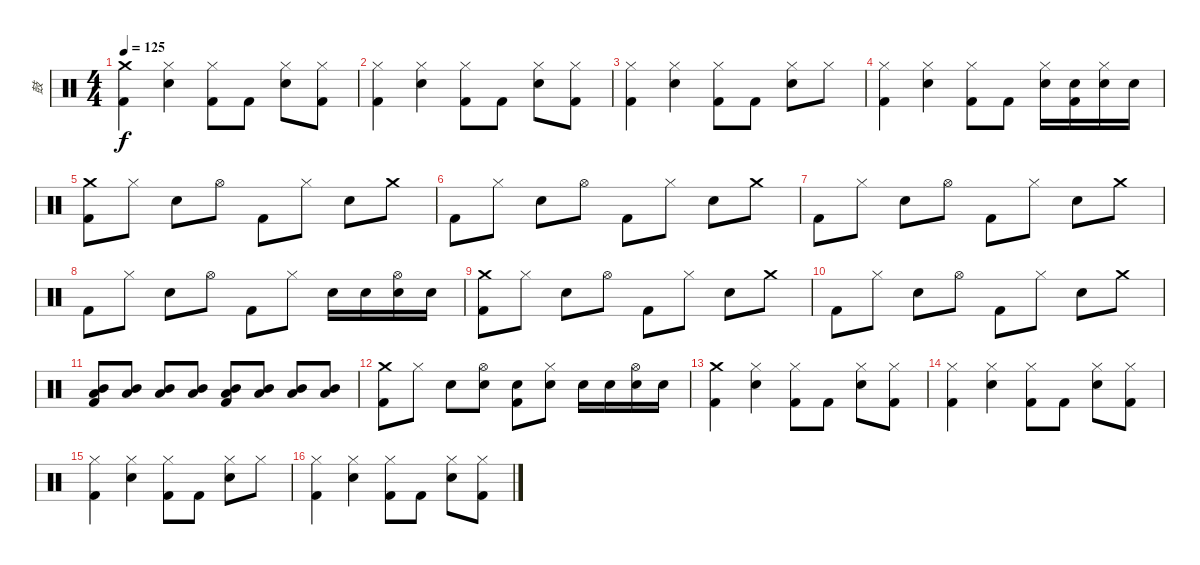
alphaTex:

\track ("鼓" "鼓") {instrument percussion}
\staff {score}
\articulation defaults
\ts (4 4)
\tempo 125
\clef neutral
\ks c
("Crash medium (hit)" "Kick (hit) 2").4{dy f} ("Hi-Hat (closed)" "Electric Snare (hit)").4 ("Hi-Hat (closed)" "Kick (hit) 2").8 "Kick (hit) 2".8 ("Hi-Hat (closed)" "Electric Snare (hit)").8 ("Hi-Hat (closed)" "Kick (hit) 2").8 |
("Hi-Hat (closed)" "Kick (hit) 2").4 ("Hi-Hat (closed)" "Electric Snare (hit)").4 ("Hi-Hat (closed)" "Kick (hit) 2").8 "Kick (hit) 2".8 ("Hi-Hat (closed)" "Electric Snare (hit)").8 ("Hi-Hat (closed)" "Kick (hit) 2").8 |
("Hi-Hat (closed)" "Kick (hit) 2").4 ("Hi-Hat (closed)" "Electric Snare (hit)").4 ("Hi-Hat (closed)" "Kick (hit) 2").8 "Kick (hit) 2".8 ("Hi-Hat (closed)" "Electric Snare (hit)").8 "Hi-Hat (closed)".8 |
("Hi-Hat (closed)" "Kick (hit) 2").4 ("Hi-Hat (closed)" "Electric Snare (hit)").4 ("Hi-Hat (closed)" "Kick (hit) 2").8 "Kick (hit) 2".8 ("Hi-Hat (closed)" "Electric Snare (hit)").16 ("Electric Snare (hit)" "Kick (hit) 2").16 ("Hi-Hat (closed)" "Electric Snare (hit)").16 "Electric Snare (hit)".16 |
("Crash medium (hit)" "Kick (hit) 2").8 "Hi-Hat (closed)".8 "Electric Snare (hit)".8 "Hi-Hat (open)".8 "Kick (hit) 2".8 "Hi-Hat (closed)".8 "Electric Snare (hit)".8 "Crash medium (hit)".8 |
"Kick (hit) 2".8 "Hi-Hat (closed)".8 "Electric Snare (hit)".8 "Hi-Hat (open)".8 "Kick (hit) 2".8 "Hi-Hat (closed)".8 "Electric Snare (hit)".8 "Crash medium (hit)".8 |
"Kick (hit) 2".8 "Hi-Hat (closed)".8 "Electric Snare (hit)".8 "Hi-Hat (open)".8 "Kick (hit) 2".8 "Hi-Hat (closed)".8 "Electric Snare (hit)".8 "Crash medium (hit)".8 |
"Kick (hit) 2".8 "Hi-Hat (closed)".8 "Electric Snare (hit)".8 "Hi-Hat (open)".8 "Kick (hit) 2".8 "Hi-Hat (closed)".8 "Electric Snare (hit)".16 "Electric Snare (hit)".16 ("Hi-Hat (open)" "Electric Snare (hit)").16 "Electric Snare (hit)".16 |
("Crash medium (hit)" "Kick (hit) 2").8 "Hi-Hat (closed)".8 "Electric Snare (hit)".8 "Hi-Hat (open)".8 "Kick (hit) 2".8 "Hi-Hat (closed)".8 "Electric Snare (hit)".8 "Crash medium (hit)".8 |
"Kick (hit) 2".8 "Hi-Hat (closed)".8 "Electric Snare (hit)".8 "Hi-Hat (open)".8 "Kick (hit) 2".8 "Hi-Hat (closed)".8 "Electric Snare (hit)".8 "Crash medium (hit)".8 |
("Mid Tom (hit)" "Low Tom (hit)" "Kick (hit) 2").8 ("Mid Tom (hit)" "Low Tom (hit)").8 ("Mid Tom (hit)" "Low Tom (hit)").8 ("Mid Tom (hit)" "Low Tom (hit)").8 ("Mid Tom (hit)" "Low Tom (hit)" "Kick (hit) 2").8 ("Mid Tom (hit)" "Low Tom (hit)").8 ("Mid Tom (hit)" "Low Tom (hit)").8 ("Mid Tom (hit)" "Low Tom (hit)").8 |
("Crash medium (hit)" "Kick (hit) 2").8 "Hi-Hat (closed)".8 "Electric Snare (hit)".8 ("Hi-Hat (open)" "Electric Snare (hit)").8 ("Electric Snare (hit)" "Kick (hit) 2").8 ("Hi-Hat (closed)" "Electric Snare (hit)").8 "Electric Snare (hit)".16 "Electric Snare (hit)".16 ("Hi-Hat (open)" "Electric Snare (hit)").16 "Electric Snare (hit)".16 |
("Crash medium (hit)" "Kick (hit) 2").4 ("Hi-Hat (closed)" "Electric Snare (hit)").4 ("Hi-Hat (closed)" "Kick (hit) 2").8 "Kick (hit) 2".8 ("Hi-Hat (closed)" "Electric Snare (hit)").8 ("Hi-Hat (closed)" "Kick (hit) 2").8 |
("Hi-Hat (closed)" "Kick (hit) 2").4 ("Hi-Hat (closed)" "Electric Snare (hit)").4 ("Hi-Hat (closed)" "Kick (hit) 2").8 "Kick (hit) 2".8 ("Hi-Hat (closed)" "Electric Snare (hit)").8 ("Hi-Hat (closed)" "Kick (hit) 2").8 |
("Hi-Hat (closed)" "Kick (hit) 2").4 ("Hi-Hat (closed)" "Electric Snare (hit)").4 ("Hi-Hat (closed)" "Kick (hit) 2").8 "Kick (hit) 2".8 ("Hi-Hat (closed)" "Electric Snare (hit)").8 "Hi-Hat (closed)".8 |
("Hi-Hat (closed)" "Kick (hit) 2").4 ("Hi-Hat (closed)" "Electric Snare (hit)").4 ("Hi-Hat (closed)" "Kick (hit) 2").8 "Kick (hit) 2".8 ("Hi-Hat (closed)" "Electric Snare (hit)").8 ("Hi-Hat (closed)" "Kick (hit) 2").8
